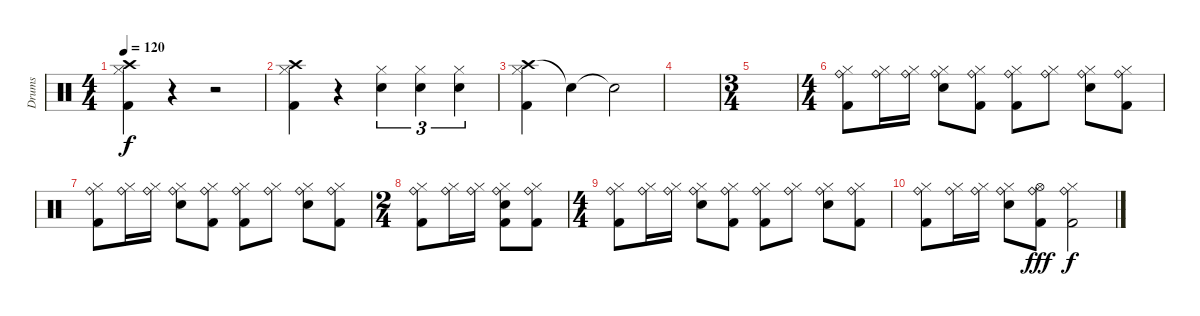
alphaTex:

\track ("Drums" "Drums") {instrument percussion}
\staff {score}
\articulation defaults
\ts (4 4)
\tempo 120
\clef neutral
\ks c
("Crash high (hit)" "Hi-Hat (closed)" "Kick (hit) 2").4{dy f} r.4 r.2 |
("Crash high (hit)" "Hi-Hat (closed)" "Kick (hit) 2").4 r.4 ("Hi-Hat (closed)" "Snare (hit) 2").4{tu (3 2)} ("Hi-Hat (closed)" "Snare (hit) 2").4{tu (3 2)} ("Hi-Hat (closed)" "Snare (hit) 2").4{tu (3 2)} |
("Crash high (hit)" "Hi-Hat (closed)" "Kick (hit) 2").4 "Snare (hit)"{t}.4 "Snare (hit)"{t}.2 |
|
\ts (3 4)
|
\ts (4 4)
("Ride (bell)" "Hi-Hat (closed)" "Kick (hit) 2").8 ("Ride (bell)" "Hi-Hat (closed)").16 ("Ride (bell)" "Hi-Hat (closed)").16 ("Ride (bell)" "Hi-Hat (closed)" "Snare (hit) 2").8 ("Ride (bell)" "Hi-Hat (closed)" "Kick (hit) 2").8 ("Ride (bell)" "Hi-Hat (closed)" "Kick (hit) 2").8 ("Ride (bell)" "Hi-Hat (closed)").8 ("Ride (bell)" "Hi-Hat (closed)" "Snare (hit) 2").8 ("Ride (bell)" "Hi-Hat (closed)" "Kick (hit) 2").8 |
("Ride (bell)" "Hi-Hat (closed)" "Kick (hit) 2").8 ("Ride (bell)" "Hi-Hat (closed)").16 ("Ride (bell)" "Hi-Hat (closed)").16 ("Ride (bell)" "Hi-Hat (closed)" "Snare (hit) 2").8 ("Ride (bell)" "Hi-Hat (closed)" "Kick (hit) 2").8 ("Ride (bell)" "Hi-Hat (closed)" "Kick (hit) 2").8 ("Ride (bell)" "Hi-Hat (closed)").8 ("Ride (bell)" "Hi-Hat (closed)" "Snare (hit) 2").8 ("Ride (bell)" "Hi-Hat (closed)" "Kick (hit) 2").8 |
\ts (2 4)
("Ride (bell)" "Hi-Hat (closed)" "Kick (hit) 2").8 ("Ride (bell)" "Hi-Hat (closed)").16 ("Ride (bell)" "Hi-Hat (closed)").16 ("Ride (bell)" "Hi-Hat (closed)" "Snare (hit) 2" "Kick (hit) 2").8 ("Ride (bell)" "Hi-Hat (closed)" "Kick (hit) 2").8 |
\ts (4 4)
("Ride (bell)" "Hi-Hat (closed)" "Kick (hit) 2").8 ("Ride (bell)" "Hi-Hat (closed)").16 ("Ride (bell)" "Hi-Hat (closed)").16 ("Ride (bell)" "Hi-Hat (closed)" "Snare (hit) 2").8 ("Ride (bell)" "Hi-Hat (closed)" "Kick (hit) 2").8 ("Ride (bell)" "Hi-Hat (closed)" "Kick (hit) 2").8 ("Ride (bell)" "Hi-Hat (closed)").8 ("Ride (bell)" "Hi-Hat (closed)" "Snare (hit) 2").8 ("Ride (bell)" "Hi-Hat (closed)" "Kick (hit) 2").8 |
("Ride (bell)" "Hi-Hat (closed)" "Kick (hit) 2").8 ("Ride (bell)" "Hi-Hat (closed)").16 ("Ride (bell)" "Hi-Hat (closed)").16 ("Ride (bell)" "Hi-Hat (closed)" "Snare (hit) 2").8 ("Ride (bell)" "Hi-Hat (open)" "Kick (hit) 2").8{dy fff} ("Ride (bell)" "Hi-Hat (closed)" "Kick (hit) 2").2{dy f}
